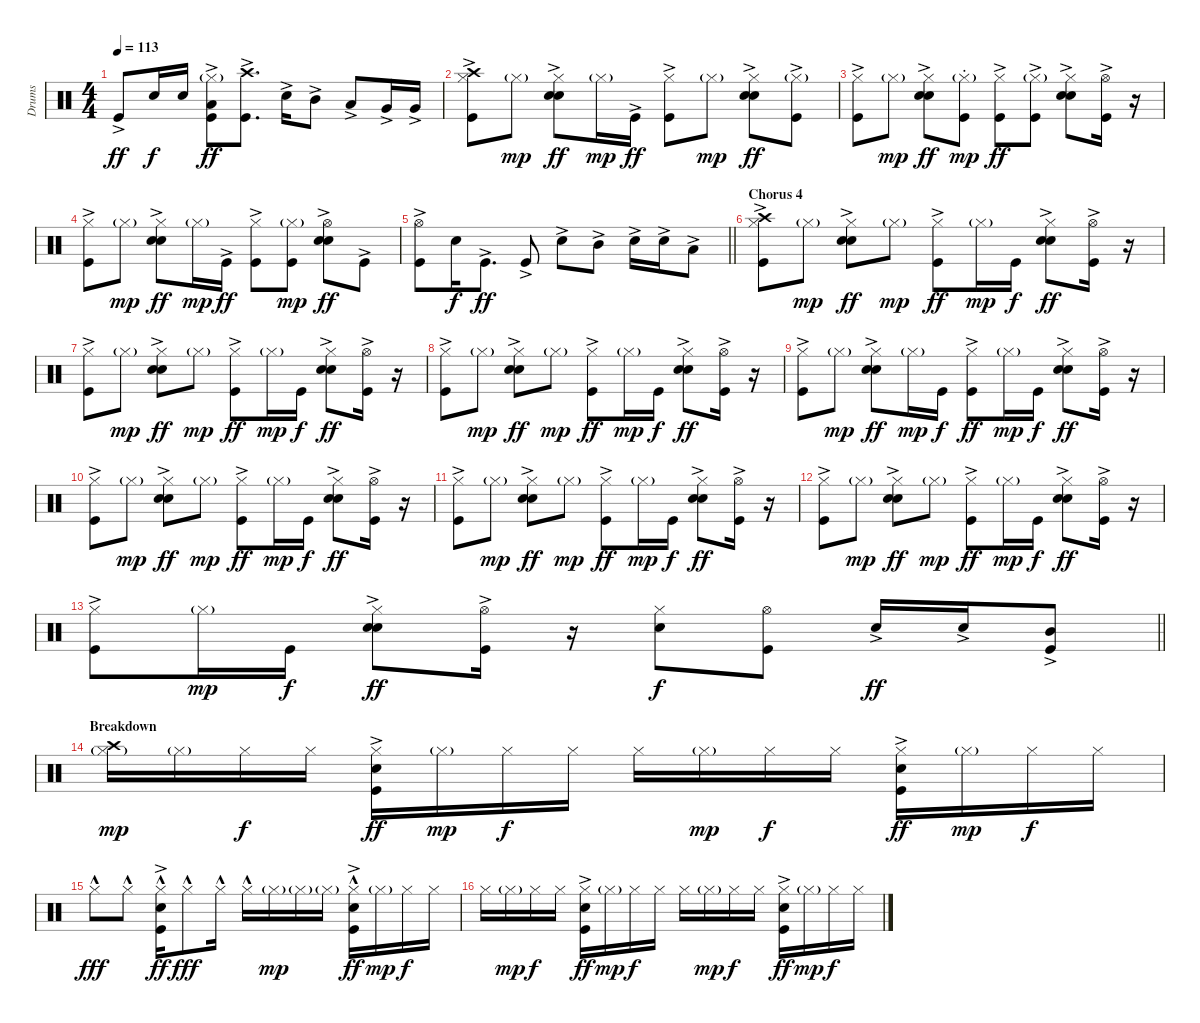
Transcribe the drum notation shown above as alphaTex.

\track ("Drums" "Drums") {instrument percussion}
\staff {score}
\articulation defaults
\ts (4 4)
\tempo 113
\clef neutral
\ks c "Kick (hit)"{ac}.8{dy ff} "Snare (hit) 2".16{dy f} "Snare (hit) 2".16
("Hi-Hat (closed)"{g} "Low Tom (hit)" "Kick (hit)"{ac}).8{dy ff} ("Crash high (hit)" "Kick (hit)"{ac}).8{d} "Snare (hit) 2"{ac}.16 "Mid Tom (hit)"{ac}.8 "Low Tom (hit)"{ac}.8 "Very Low Tom (hit)"{ac}.16 "Very Low Tom (hit)"{ac}.16 |
("Crash high (hit)" "Hi-Hat (closed)" "Kick (hit)"{ac}).8 "Hi-Hat (closed)"{g}.8{dy mp} ("Hi-Hat (closed)" "Hand Clap (hit)" "Snare (hit) 2"{ac}).8{dy ff} "Hi-Hat (closed)"{g}.16{dy mp} "Kick (hit)"{ac}.16{dy ff} ("Hi-Hat (closed)" "Kick (hit)"{ac}).8 "Hi-Hat (closed)"{g}.8{dy mp} ("Hi-Hat (closed)" "Hand Clap (hit)" "Snare (hit) 2"{ac}).8{dy ff} ("Hi-Hat (closed)"{g} "Kick (hit)"{ac}).8 |
("Hi-Hat (closed)" "Kick (hit)"{ac}).8 "Hi-Hat (closed)"{g}.8{dy mp} ("Hi-Hat (closed)" "Hand Clap (hit)" "Snare (hit) 2"{ac}).8{dy ff} ("Hi-Hat (closed)"{g} "Kick (hit)"{st}).8{dy mp} ("Hi-Hat (closed)" "Kick (hit)"{ac}).8{dy ff} ("Hi-Hat (closed)"{g} "Kick (hit)"{ac}).8 ("Hi-Hat (closed)" "Hand Clap (hit)" "Snare (hit) 2"{ac}).8 ("Hi-Hat (open)" "Kick (hit)"{ac}).16 r.16 |
("Hi-Hat (closed)" "Kick (hit)"{ac}).8 "Hi-Hat (closed)"{g}.8{dy mp} ("Hi-Hat (closed)" "Hand Clap (hit)" "Snare (hit) 2"{ac}).8{dy ff} "Hi-Hat (closed)"{g}.16{dy mp} "Kick (hit)"{ac}.16{dy ff} ("Hi-Hat (closed)" "Kick (hit)"{ac}).8 ("Hi-Hat (closed)"{g} "Kick (hit)").8{dy mp} ("Hi-Hat (open)" "Hand Clap (hit)" "Snare (hit) 2"{ac}).8{dy ff} "Kick (hit)"{ac}.8 |
\barLineRight lightlight
("Hi-Hat (open)" "Kick (hit)"{ac}).8 "Snare (hit) 2".16{dy f} "Kick (hit)"{ac}.8{d dy ff} "Kick (hit)"{ac}.8 "Snare (hit) 2"{ac}.8 "Mid Tom (hit)"{ac}.8 "Snare (hit) 2"{ac}.16 "Snare (hit) 2"{ac}.16 "Low Tom (hit)"{ac}.8 |
\section ("" "Chorus 4")
("Crash high (hit)" "Hi-Hat (closed)" "Kick (hit)"{ac}).8 "Hi-Hat (closed)"{g}.8{dy mp} ("Hi-Hat (closed)" "Hand Clap (hit)" "Snare (hit) 2"{ac}).8{dy ff} "Hi-Hat (closed)"{g}.8{dy mp} ("Hi-Hat (closed)" "Kick (hit)"{ac}).8{dy ff} "Hi-Hat (closed)"{g}.16{dy mp} "Kick (hit)".16{dy f} ("Hi-Hat (closed)" "Hand Clap (hit)" "Snare (hit) 2"{ac}).8{dy ff} ("Hi-Hat (open)" "Kick (hit)"{ac}).16 r.16 |
("Hi-Hat (closed)" "Kick (hit)"{ac}).8 "Hi-Hat (closed)"{g}.8{dy mp} ("Hi-Hat (closed)" "Hand Clap (hit)" "Snare (hit) 2"{ac}).8{dy ff} "Hi-Hat (closed)"{g}.8{dy mp} ("Hi-Hat (closed)" "Kick (hit)"{ac}).8{dy ff} "Hi-Hat (closed)"{g}.16{dy mp} "Kick (hit)".16{dy f} ("Hi-Hat (closed)" "Hand Clap (hit)"{ac} "Snare (hit) 2").8{dy ff} ("Hi-Hat (open)" "Kick (hit)"{ac}).16 r.16 |
("Hi-Hat (closed)" "Kick (hit)"{ac}).8 "Hi-Hat (closed)"{g}.8{dy mp} ("Hi-Hat (closed)" "Hand Clap (hit)"{ac} "Snare (hit) 2").8{dy ff} "Hi-Hat (closed)"{g}.8{dy mp} ("Hi-Hat (closed)" "Kick (hit)"{ac}).8{dy ff} "Hi-Hat (closed)"{g}.16{dy mp} "Kick (hit)".16{dy f} ("Hi-Hat (closed)" "Hand Clap (hit)"{ac} "Snare (hit) 2").8{dy ff} ("Hi-Hat (open)" "Kick (hit)"{ac}).16 r.16 |
("Hi-Hat (closed)" "Kick (hit)"{ac}).8 "Hi-Hat (closed)"{g}.8{dy mp} ("Hi-Hat (closed)" "Hand Clap (hit)"{ac} "Snare (hit) 2").8{dy ff} "Hi-Hat (closed)"{g}.16{dy mp} "Kick (hit)".16{dy f} ("Hi-Hat (closed)" "Kick (hit)"{ac}).8{dy ff} "Hi-Hat (closed)"{g}.16{dy mp} "Kick (hit)".16{dy f} ("Hi-Hat (closed)" "Hand Clap (hit)"{ac} "Snare (hit) 2").8{dy ff} ("Hi-Hat (open)" "Kick (hit)"{ac}).16 r.16 |
("Hi-Hat (closed)" "Kick (hit)"{ac}).8 "Hi-Hat (closed)"{g}.8{dy mp} ("Hi-Hat (closed)" "Hand Clap (hit)"{ac} "Snare (hit) 2").8{dy ff} "Hi-Hat (closed)"{g}.8{dy mp} ("Hi-Hat (closed)" "Kick (hit)"{ac}).8{dy ff} "Hi-Hat (closed)"{g}.16{dy mp} "Kick (hit)".16{dy f} ("Hi-Hat (closed)" "Hand Clap (hit)"{ac} "Snare (hit) 2").8{dy ff} ("Hi-Hat (open)" "Kick (hit)"{ac}).16 r.16 |
("Hi-Hat (closed)" "Kick (hit)"{ac}).8 "Hi-Hat (closed)"{g}.8{dy mp} ("Hi-Hat (closed)" "Hand Clap (hit)"{ac} "Snare (hit) 2").8{dy ff} "Hi-Hat (closed)"{g}.8{dy mp} ("Hi-Hat (closed)" "Kick (hit)"{ac}).8{dy ff} "Hi-Hat (closed)"{g}.16{dy mp} "Kick (hit)".16{dy f} ("Hi-Hat (closed)" "Hand Clap (hit)"{ac} "Snare (hit) 2").8{dy ff} ("Hi-Hat (open)" "Kick (hit)"{ac}).16 r.16 |
("Hi-Hat (closed)" "Kick (hit)"{ac}).8 "Hi-Hat (closed)"{g}.8{dy mp} ("Hi-Hat (closed)" "Hand Clap (hit)"{ac} "Snare (hit) 2").8{dy ff} "Hi-Hat (closed)"{g}.8{dy mp} ("Hi-Hat (closed)" "Kick (hit)"{ac}).8{dy ff} "Hi-Hat (closed)"{g}.16{dy mp} "Kick (hit)".16{dy f} ("Hi-Hat (closed)" "Hand Clap (hit)"{ac} "Snare (hit) 2").8{dy ff} ("Hi-Hat (open)" "Kick (hit)"{ac}).16 r.16 |
\barLineRight lightlight
("Hi-Hat (closed)" "Kick (hit)"{ac}).8 "Hi-Hat (closed)"{g}.16{dy mp} "Kick (hit)".16{dy f} ("Hi-Hat (closed)" "Hand Clap (hit)"{ac} "Snare (hit) 2").8{dy ff} ("Hi-Hat (open)" "Kick (hit)"{ac}).16 r.16 ("Hi-Hat (closed)" "Snare (hit) 2").8{dy f} ("Hi-Hat (open)" "Kick (hit)").8 "Snare (hit) 2"{ac}.16{dy ff} "Snare (hit) 2"{ac}.16 ("Mid Tom (hit)"{ac} "Kick (hit)"{ac}).8 |
\section ("" "Breakdown")
("Crash high (hit)" "Hi-Hat (closed)"{g}).16{dy mp} "Hi-Hat (closed)"{g}.16 "Hi-Hat (closed)".16{dy f} "Hi-Hat (closed)".16 ("Hi-Hat (closed)" "Hand Clap (hit)"{ac} "Kick (hit)"{ac}).16{dy ff} "Hi-Hat (closed)"{g}.16{dy mp} "Hi-Hat (closed)".16{dy f} "Hi-Hat (closed)".16 "Hi-Hat (closed)".16 "Hi-Hat (closed)"{g}.16{dy mp} "Hi-Hat (closed)".16{dy f} "Hi-Hat (closed)".16 ("Hi-Hat (closed)" "Hand Clap (hit)"{ac} "Kick (hit)"{ac}).16{dy ff} "Hi-Hat (closed)"{g}.16{dy mp} "Hi-Hat (closed)".16{dy f} "Hi-Hat (closed)".16 |
"Hi-Hat (closed)"{hac}.8{dy fff} "Hi-Hat (closed)"{hac}.8 ("Hi-Hat (closed)"{hac} "Hand Clap (hit)"{ac} "Kick (hit)"{ac}).16{dy ff} "Hi-Hat (closed)"{hac}.8{dy fff} "Hi-Hat (closed)"{hac}.16 "Hi-Hat (closed)"{hac}.16 "Hi-Hat (closed)"{g}.16{dy mp} "Hi-Hat (closed)"{g}.16 "Hi-Hat (closed)"{g}.16 ("Hi-Hat (closed)"{hac} "Hand Clap (hit)"{ac} "Kick (hit)"{ac}).16{dy ff} "Hi-Hat (closed)"{g}.16{dy mp} "Hi-Hat (closed)".16{dy f} "Hi-Hat (closed)".16 |
"Hi-Hat (closed)".16 "Hi-Hat (closed)"{g}.16{dy mp} "Hi-Hat (closed)".16{dy f} "Hi-Hat (closed)".16 ("Hi-Hat (closed)" "Hand Clap (hit)"{ac} "Kick (hit)"{ac}).16{dy ff} "Hi-Hat (closed)"{g}.16{dy mp} "Hi-Hat (closed)".16{dy f} "Hi-Hat (closed)".16 "Hi-Hat (closed)".16 "Hi-Hat (closed)"{g}.16{dy mp} "Hi-Hat (closed)".16{dy f} "Hi-Hat (closed)".16 ("Hi-Hat (closed)" "Hand Clap (hit)"{ac} "Kick (hit)"{ac}).16{dy ff} "Hi-Hat (closed)"{g}.16{dy mp} "Hi-Hat (closed)".16{dy f} "Hi-Hat (closed)".16
